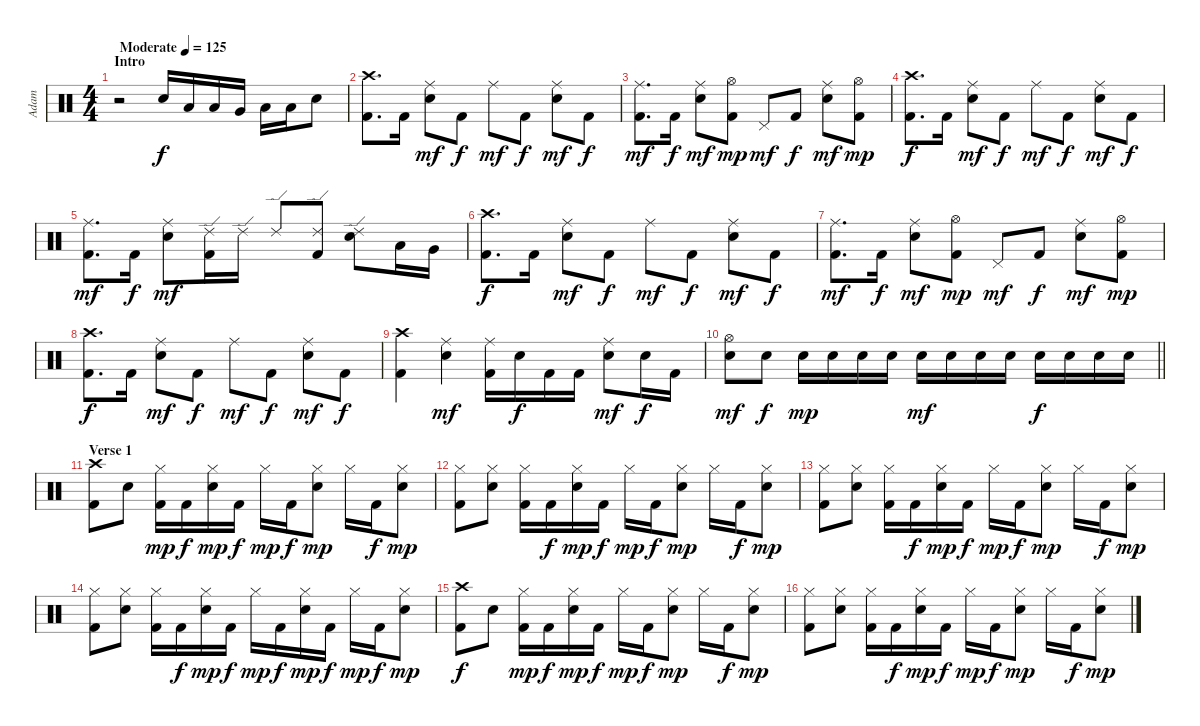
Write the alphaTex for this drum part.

\track ("Adam" "Adam") {instrument percussion}
\staff {score}
\articulation defaults
\ts (4 4)
\section ("" "Intro")
\tempo (125 "Moderate")
\clef neutral
\ks c
r.2{dy f} "Electric Snare (hit)".16 "Low Tom (hit)".16 "Low Tom (hit)".16 "Very Low Tom (hit)".16 "Low Floor Tom (hit)".16 "Low Floor Tom (hit)".16 "Electric Snare (hit)".8 |
("Crash high (hit)" "Kick (hit) 2").8{d} "Kick (hit) 2".16 ("Ride (middle)" "Electric Snare (hit)").8{dy mf} "Kick (hit) 2".8{dy f} "Ride (middle)".8{dy mf} "Kick (hit) 2".8{dy f} ("Ride (middle)" "Electric Snare (hit)").8{dy mf} "Kick (hit) 2".8{dy f} |
("Ride (middle)" "Kick (hit) 2").8{d dy mf} "Kick (hit) 2".16{dy f} ("Ride (middle)" "Electric Snare (hit)").8{dy mf} ("Hi-Hat (open)" "Kick (hit) 2").8{dy mp} "Pedal Hi-Hat (hit)".8{dy mf} "Kick (hit) 2".8{dy f} ("Ride (middle)" "Electric Snare (hit)").8{dy mf} ("Hi-Hat (open)" "Kick (hit) 2").8{dy mp} |
("Crash high (hit)" "Kick (hit) 2").8{d dy f} "Kick (hit) 2".16 ("Ride (middle)" "Electric Snare (hit)").8{dy mf} "Kick (hit) 2".8{dy f} "Ride (middle)".8{dy mf} "Kick (hit) 2".8{dy f} ("Ride (middle)" "Electric Snare (hit)").8{dy mf} "Kick (hit) 2".8{dy f} |
("Ride (middle)" "Kick (hit) 2").8{d dy mf} "Kick (hit) 2".16{dy f} ("Ride (middle)" "Electric Snare (hit)").8{dy mf} ("Ride (edge) 2" "Kick (hit) 2").16 "Ride (edge) 2".16 "Ride (edge) 2".8 ("Ride (edge) 2" "Kick (hit) 2").8 ("Ride (edge) 2" "Electric Snare (hit)").8 "Low Tom (hit)".16 "Very Low Tom (hit)".16 |
("Crash high (hit)" "Kick (hit) 2").8{d dy f} "Kick (hit) 2".16 ("Ride (middle)" "Electric Snare (hit)").8{dy mf} "Kick (hit) 2".8{dy f} "Ride (middle)".8{dy mf} "Kick (hit) 2".8{dy f} ("Ride (middle)" "Electric Snare (hit)").8{dy mf} "Kick (hit) 2".8{dy f} |
("Ride (middle)" "Kick (hit) 2").8{d dy mf} "Kick (hit) 2".16{dy f} ("Ride (middle)" "Electric Snare (hit)").8{dy mf} ("Hi-Hat (open)" "Kick (hit) 2").8{dy mp} "Pedal Hi-Hat (hit)".8{dy mf} "Kick (hit) 2".8{dy f} ("Ride (middle)" "Electric Snare (hit)").8{dy mf} ("Hi-Hat (open)" "Kick (hit) 2").8{dy mp} |
("Crash high (hit)" "Kick (hit) 2").8{d dy f} "Kick (hit) 2".16 ("Ride (middle)" "Electric Snare (hit)").8{dy mf} "Kick (hit) 2".8{dy f} "Ride (middle)".8{dy mf} "Kick (hit) 2".8{dy f} ("Ride (middle)" "Electric Snare (hit)").8{dy mf} "Kick (hit) 2".8{dy f} |
("Crash high (hit)" "Kick (hit) 2").4 ("Ride (middle)" "Electric Snare (hit)").4{dy mf} ("Ride (middle)" "Kick (hit) 2").16 "Electric Snare (hit)".16{dy f} "Kick (hit) 2".16 "Kick (hit) 2".16 ("Ride (middle)" "Electric Snare (hit)").8{dy mf} "Electric Snare (hit)".16{dy f} "Kick (hit) 2".16 |
\barLineRight lightlight
("Hi-Hat (open)" "Electric Snare (hit)").8{dy mf} "Electric Snare (hit)".8{dy f} "Electric Snare (hit)".16{dy mp} "Electric Snare (hit)".16 "Electric Snare (hit)".16 "Electric Snare (hit)".16 "Electric Snare (hit)".16{dy mf} "Electric Snare (hit)".16 "Electric Snare (hit)".16 "Electric Snare (hit)".16 "Electric Snare (hit)".16{dy f} "Electric Snare (hit)".16 "Electric Snare (hit)".16 "Electric Snare (hit)".16 |
\section ("" "Verse 1")
("Crash high (hit)" "Kick (hit) 2").8 "Electric Snare (hit)".8 ("Hi-Hat (closed)" "Kick (hit) 2").16{dy mp} "Kick (hit) 2".16{dy f} ("Hi-Hat (closed)" "Electric Snare (hit)").16{dy mp} "Kick (hit) 2".16{dy f} "Hi-Hat (closed)".16{dy mp} "Kick (hit) 2".16{dy f} ("Hi-Hat (closed)" "Electric Snare (hit)").8{dy mp} "Hi-Hat (closed)".16 "Kick (hit) 2".16{dy f} ("Hi-Hat (closed)" "Electric Snare (hit)").8{dy mp} |
("Hi-Hat (closed)" "Kick (hit) 2").8 ("Hi-Hat (closed)" "Electric Snare (hit)").8 ("Hi-Hat (closed)" "Kick (hit) 2").16 "Kick (hit) 2".16{dy f} ("Hi-Hat (closed)" "Electric Snare (hit)").16{dy mp} "Kick (hit) 2".16{dy f} "Hi-Hat (closed)".16{dy mp} "Kick (hit) 2".16{dy f} ("Hi-Hat (closed)" "Electric Snare (hit)").8{dy mp} "Hi-Hat (closed)".16 "Kick (hit) 2".16{dy f} ("Hi-Hat (closed)" "Electric Snare (hit)").8{dy mp} |
("Hi-Hat (closed)" "Kick (hit) 2").8 ("Hi-Hat (closed)" "Electric Snare (hit)").8 ("Hi-Hat (closed)" "Kick (hit) 2").16 "Kick (hit) 2".16{dy f} ("Hi-Hat (closed)" "Electric Snare (hit)").16{dy mp} "Kick (hit) 2".16{dy f} "Hi-Hat (closed)".16{dy mp} "Kick (hit) 2".16{dy f} ("Hi-Hat (closed)" "Electric Snare (hit)").8{dy mp} "Hi-Hat (closed)".16 "Kick (hit) 2".16{dy f} ("Hi-Hat (closed)" "Electric Snare (hit)").8{dy mp} |
("Hi-Hat (closed)" "Kick (hit) 2").8 ("Hi-Hat (closed)" "Electric Snare (hit)").8 ("Hi-Hat (closed)" "Kick (hit) 2").16 "Kick (hit) 2".16{dy f} ("Hi-Hat (closed)" "Electric Snare (hit)").16{dy mp} "Kick (hit) 2".16{dy f} "Hi-Hat (closed)".16{dy mp} "Kick (hit) 2".16{dy f} ("Hi-Hat (closed)" "Electric Snare (hit)").16{dy mp} "Kick (hit) 2".16{dy f} "Hi-Hat (closed)".16{dy mp} "Kick (hit) 2".16{dy f} ("Hi-Hat (closed)" "Electric Snare (hit)").8{dy mp} |
("Crash high (hit)" "Kick (hit) 2").8{dy f} "Electric Snare (hit)".8 ("Hi-Hat (closed)" "Kick (hit) 2").16{dy mp} "Kick (hit) 2".16{dy f} ("Hi-Hat (closed)" "Electric Snare (hit)").16{dy mp} "Kick (hit) 2".16{dy f} "Hi-Hat (closed)".16{dy mp} "Kick (hit) 2".16{dy f} ("Hi-Hat (closed)" "Electric Snare (hit)").8{dy mp} "Hi-Hat (closed)".16 "Kick (hit) 2".16{dy f} ("Hi-Hat (closed)" "Electric Snare (hit)").8{dy mp} |
("Hi-Hat (closed)" "Kick (hit) 2").8 ("Hi-Hat (closed)" "Electric Snare (hit)").8 ("Hi-Hat (closed)" "Kick (hit) 2").16 "Kick (hit) 2".16{dy f} ("Hi-Hat (closed)" "Electric Snare (hit)").16{dy mp} "Kick (hit) 2".16{dy f} "Hi-Hat (closed)".16{dy mp} "Kick (hit) 2".16{dy f} ("Hi-Hat (closed)" "Electric Snare (hit)").8{dy mp} "Hi-Hat (closed)".16 "Kick (hit) 2".16{dy f} ("Hi-Hat (closed)" "Electric Snare (hit)").8{dy mp}
